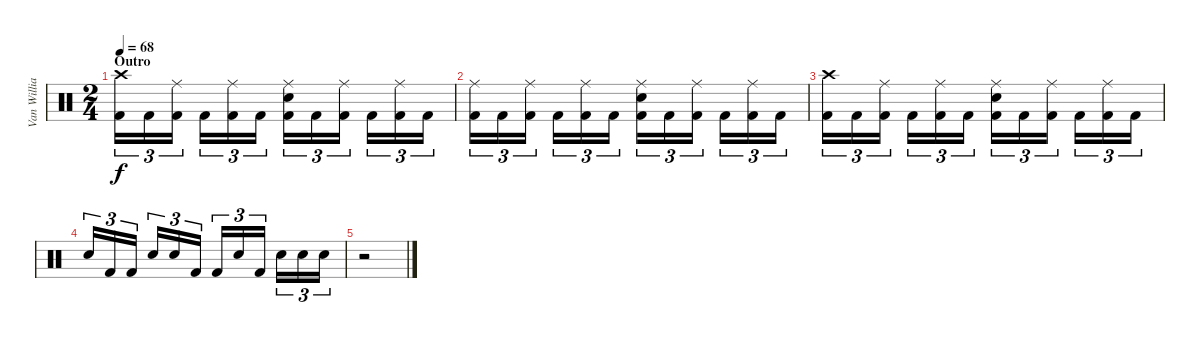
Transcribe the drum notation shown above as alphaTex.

\track ("Van Williams" "Van Willia") {instrument percussion}
\staff
\articulation defaults
\ts (2 4)
\section ("" "Outro")
\tempo 68
\clef neutral
\ks c
("Crash high (hit)" "Kick (hit) 2").16{tu (3 2) dy f} "Kick (hit) 2".16{tu (3 2)} ("Ride (middle)" "Kick (hit) 2").16{tu (3 2) beam splitsecondary} "Kick (hit) 2".16{tu (3 2)} ("Ride (middle)" "Kick (hit) 2").16{tu (3 2)} "Kick (hit) 2".16{tu (3 2)} ("Ride (middle)" "Electric Snare (hit)" "Kick (hit) 2").16{tu (3 2)} "Kick (hit) 2".16{tu (3 2)} ("Ride (middle)" "Kick (hit) 2").16{tu (3 2) beam splitsecondary} "Kick (hit) 2".16{tu (3 2)} ("Ride (middle)" "Kick (hit) 2").16{tu (3 2)} "Kick (hit) 2".16{tu (3 2)} |
("Ride (middle)" "Kick (hit) 2").16{tu (3 2)} "Kick (hit) 2".16{tu (3 2)} ("Ride (middle)" "Kick (hit) 2").16{tu (3 2) beam splitsecondary} "Kick (hit) 2".16{tu (3 2)} ("Ride (middle)" "Kick (hit) 2").16{tu (3 2)} "Kick (hit) 2".16{tu (3 2)} ("Ride (middle)" "Electric Snare (hit)" "Kick (hit) 2").16{tu (3 2)} "Kick (hit) 2".16{tu (3 2)} ("Ride (middle)" "Kick (hit) 2").16{tu (3 2) beam splitsecondary} "Kick (hit) 2".16{tu (3 2)} ("Ride (middle)" "Kick (hit) 2").16{tu (3 2)} "Kick (hit) 2".16{tu (3 2)} |
("Crash high (hit)" "Kick (hit) 2").16{tu (3 2)} "Kick (hit) 2".16{tu (3 2)} ("Ride (middle)" "Kick (hit) 2").16{tu (3 2) beam splitsecondary} "Kick (hit) 2".16{tu (3 2)} ("Ride (middle)" "Kick (hit) 2").16{tu (3 2)} "Kick (hit) 2".16{tu (3 2)} ("Ride (middle)" "Electric Snare (hit)" "Kick (hit) 2").16{tu (3 2)} "Kick (hit) 2".16{tu (3 2)} ("Ride (middle)" "Kick (hit) 2").16{tu (3 2) beam splitsecondary} "Kick (hit) 2".16{tu (3 2)} ("Ride (middle)" "Kick (hit) 2").16{tu (3 2)} "Kick (hit) 2".16{tu (3 2)} |
"Electric Snare (hit)".16{tu (3 2)} "Kick (hit) 2".16{tu (3 2)} "Kick (hit) 2".16{tu (3 2) beam splitsecondary} "Electric Snare (hit)".16{tu (3 2)} "Electric Snare (hit)".16{tu (3 2)} "Kick (hit) 2".16{tu (3 2)} "Kick (hit) 2".16{tu (3 2)} "Electric Snare (hit)".16{tu (3 2)} "Kick (hit) 2".16{tu (3 2) beam splitsecondary} "Electric Snare (hit)".16{tu (3 2)} "Electric Snare (hit)".16{tu (3 2)} "Electric Snare (hit)".16{tu (3 2)} |
r.2
